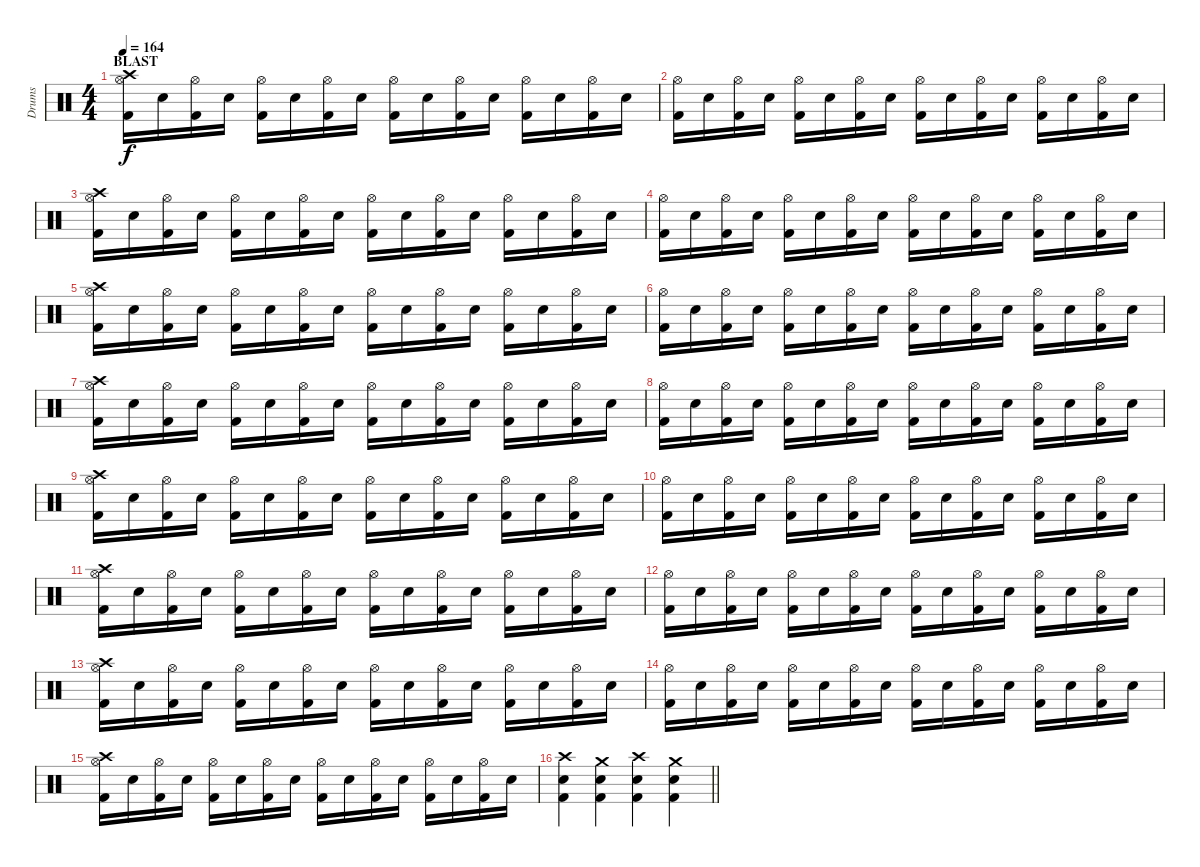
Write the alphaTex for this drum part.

\track ("Drums" "Drums") {instrument percussion}
\staff {score}
\articulation defaults
\ts (4 4)
\section ("" "BLAST")
\tempo 164
\clef neutral
\ks c
("Crash high (hit)" "Hi-Hat (open)" "Kick (hit) 2").16{dy f} "Snare (hit) 2".16 ("Hi-Hat (open)" "Kick (hit) 2").16 "Snare (hit) 2".16 ("Hi-Hat (open)" "Kick (hit) 2").16 "Snare (hit) 2".16 ("Hi-Hat (open)" "Kick (hit) 2").16 "Snare (hit) 2".16 ("Hi-Hat (open)" "Kick (hit) 2").16 "Snare (hit) 2".16 ("Hi-Hat (open)" "Kick (hit) 2").16 "Snare (hit) 2".16 ("Hi-Hat (open)" "Kick (hit) 2").16 "Snare (hit) 2".16 ("Hi-Hat (open)" "Kick (hit) 2").16 "Snare (hit) 2".16 |
("Hi-Hat (open)" "Kick (hit) 2").16 "Snare (hit) 2".16 ("Hi-Hat (open)" "Kick (hit) 2").16 "Snare (hit) 2".16 ("Hi-Hat (open)" "Kick (hit) 2").16 "Snare (hit) 2".16 ("Hi-Hat (open)" "Kick (hit) 2").16 "Snare (hit) 2".16 ("Hi-Hat (open)" "Kick (hit) 2").16 "Snare (hit) 2".16 ("Hi-Hat (open)" "Kick (hit) 2").16 "Snare (hit) 2".16 ("Hi-Hat (open)" "Kick (hit) 2").16 "Snare (hit) 2".16 ("Hi-Hat (open)" "Kick (hit) 2").16 "Snare (hit) 2".16 |
("Crash high (hit)" "Hi-Hat (open)" "Kick (hit) 2").16 "Snare (hit) 2".16 ("Hi-Hat (open)" "Kick (hit) 2").16 "Snare (hit) 2".16 ("Hi-Hat (open)" "Kick (hit) 2").16 "Snare (hit) 2".16 ("Hi-Hat (open)" "Kick (hit) 2").16 "Snare (hit) 2".16 ("Hi-Hat (open)" "Kick (hit) 2").16 "Snare (hit) 2".16 ("Hi-Hat (open)" "Kick (hit) 2").16 "Snare (hit) 2".16 ("Hi-Hat (open)" "Kick (hit) 2").16 "Snare (hit) 2".16 ("Hi-Hat (open)" "Kick (hit) 2").16 "Snare (hit) 2".16 |
("Hi-Hat (open)" "Kick (hit) 2").16 "Snare (hit) 2".16 ("Hi-Hat (open)" "Kick (hit) 2").16 "Snare (hit) 2".16 ("Hi-Hat (open)" "Kick (hit) 2").16 "Snare (hit) 2".16 ("Hi-Hat (open)" "Kick (hit) 2").16 "Snare (hit) 2".16 ("Hi-Hat (open)" "Kick (hit) 2").16 "Snare (hit) 2".16 ("Hi-Hat (open)" "Kick (hit) 2").16 "Snare (hit) 2".16 ("Hi-Hat (open)" "Kick (hit) 2").16 "Snare (hit) 2".16 ("Hi-Hat (open)" "Kick (hit) 2").16 "Snare (hit) 2".16 |
("Crash high (hit)" "Hi-Hat (open)" "Kick (hit) 2").16 "Snare (hit) 2".16 ("Hi-Hat (open)" "Kick (hit) 2").16 "Snare (hit) 2".16 ("Hi-Hat (open)" "Kick (hit) 2").16 "Snare (hit) 2".16 ("Hi-Hat (open)" "Kick (hit) 2").16 "Snare (hit) 2".16 ("Hi-Hat (open)" "Kick (hit) 2").16 "Snare (hit) 2".16 ("Hi-Hat (open)" "Kick (hit) 2").16 "Snare (hit) 2".16 ("Hi-Hat (open)" "Kick (hit) 2").16 "Snare (hit) 2".16 ("Hi-Hat (open)" "Kick (hit) 2").16 "Snare (hit) 2".16 |
("Hi-Hat (open)" "Kick (hit) 2").16 "Snare (hit) 2".16 ("Hi-Hat (open)" "Kick (hit) 2").16 "Snare (hit) 2".16 ("Hi-Hat (open)" "Kick (hit) 2").16 "Snare (hit) 2".16 ("Hi-Hat (open)" "Kick (hit) 2").16 "Snare (hit) 2".16 ("Hi-Hat (open)" "Kick (hit) 2").16 "Snare (hit) 2".16 ("Hi-Hat (open)" "Kick (hit) 2").16 "Snare (hit) 2".16 ("Hi-Hat (open)" "Kick (hit) 2").16 "Snare (hit) 2".16 ("Hi-Hat (open)" "Kick (hit) 2").16 "Snare (hit) 2".16 |
("Crash high (hit)" "Hi-Hat (open)" "Kick (hit) 2").16 "Snare (hit) 2".16 ("Hi-Hat (open)" "Kick (hit) 2").16 "Snare (hit) 2".16 ("Hi-Hat (open)" "Kick (hit) 2").16 "Snare (hit) 2".16 ("Hi-Hat (open)" "Kick (hit) 2").16 "Snare (hit) 2".16 ("Hi-Hat (open)" "Kick (hit) 2").16 "Snare (hit) 2".16 ("Hi-Hat (open)" "Kick (hit) 2").16 "Snare (hit) 2".16 ("Hi-Hat (open)" "Kick (hit) 2").16 "Snare (hit) 2".16 ("Hi-Hat (open)" "Kick (hit) 2").16 "Snare (hit) 2".16 |
("Hi-Hat (open)" "Kick (hit) 2").16 "Snare (hit) 2".16 ("Hi-Hat (open)" "Kick (hit) 2").16 "Snare (hit) 2".16 ("Hi-Hat (open)" "Kick (hit) 2").16 "Snare (hit) 2".16 ("Hi-Hat (open)" "Kick (hit) 2").16 "Snare (hit) 2".16 ("Hi-Hat (open)" "Kick (hit) 2").16 "Snare (hit) 2".16 ("Hi-Hat (open)" "Kick (hit) 2").16 "Snare (hit) 2".16 ("Hi-Hat (open)" "Kick (hit) 2").16 "Snare (hit) 2".16 ("Hi-Hat (open)" "Kick (hit) 2").16 "Snare (hit) 2".16 |
("Crash high (hit)" "Hi-Hat (open)" "Kick (hit) 2").16 "Snare (hit) 2".16 ("Hi-Hat (open)" "Kick (hit) 2").16 "Snare (hit) 2".16 ("Hi-Hat (open)" "Kick (hit) 2").16 "Snare (hit) 2".16 ("Hi-Hat (open)" "Kick (hit) 2").16 "Snare (hit) 2".16 ("Hi-Hat (open)" "Kick (hit) 2").16 "Snare (hit) 2".16 ("Hi-Hat (open)" "Kick (hit) 2").16 "Snare (hit) 2".16 ("Hi-Hat (open)" "Kick (hit) 2").16 "Snare (hit) 2".16 ("Hi-Hat (open)" "Kick (hit) 2").16 "Snare (hit) 2".16 |
("Hi-Hat (open)" "Kick (hit) 2").16 "Snare (hit) 2".16 ("Hi-Hat (open)" "Kick (hit) 2").16 "Snare (hit) 2".16 ("Hi-Hat (open)" "Kick (hit) 2").16 "Snare (hit) 2".16 ("Hi-Hat (open)" "Kick (hit) 2").16 "Snare (hit) 2".16 ("Hi-Hat (open)" "Kick (hit) 2").16 "Snare (hit) 2".16 ("Hi-Hat (open)" "Kick (hit) 2").16 "Snare (hit) 2".16 ("Hi-Hat (open)" "Kick (hit) 2").16 "Snare (hit) 2".16 ("Hi-Hat (open)" "Kick (hit) 2").16 "Snare (hit) 2".16 |
("Crash high (hit)" "Hi-Hat (open)" "Kick (hit) 2").16 "Snare (hit) 2".16 ("Hi-Hat (open)" "Kick (hit) 2").16 "Snare (hit) 2".16 ("Hi-Hat (open)" "Kick (hit) 2").16 "Snare (hit) 2".16 ("Hi-Hat (open)" "Kick (hit) 2").16 "Snare (hit) 2".16 ("Hi-Hat (open)" "Kick (hit) 2").16 "Snare (hit) 2".16 ("Hi-Hat (open)" "Kick (hit) 2").16 "Snare (hit) 2".16 ("Hi-Hat (open)" "Kick (hit) 2").16 "Snare (hit) 2".16 ("Hi-Hat (open)" "Kick (hit) 2").16 "Snare (hit) 2".16 |
("Hi-Hat (open)" "Kick (hit) 2").16 "Snare (hit) 2".16 ("Hi-Hat (open)" "Kick (hit) 2").16 "Snare (hit) 2".16 ("Hi-Hat (open)" "Kick (hit) 2").16 "Snare (hit) 2".16 ("Hi-Hat (open)" "Kick (hit) 2").16 "Snare (hit) 2".16 ("Hi-Hat (open)" "Kick (hit) 2").16 "Snare (hit) 2".16 ("Hi-Hat (open)" "Kick (hit) 2").16 "Snare (hit) 2".16 ("Hi-Hat (open)" "Kick (hit) 2").16 "Snare (hit) 2".16 ("Hi-Hat (open)" "Kick (hit) 2").16 "Snare (hit) 2".16 |
("Crash high (hit)" "Hi-Hat (open)" "Kick (hit) 2").16 "Snare (hit) 2".16 ("Hi-Hat (open)" "Kick (hit) 2").16 "Snare (hit) 2".16 ("Hi-Hat (open)" "Kick (hit) 2").16 "Snare (hit) 2".16 ("Hi-Hat (open)" "Kick (hit) 2").16 "Snare (hit) 2".16 ("Hi-Hat (open)" "Kick (hit) 2").16 "Snare (hit) 2".16 ("Hi-Hat (open)" "Kick (hit) 2").16 "Snare (hit) 2".16 ("Hi-Hat (open)" "Kick (hit) 2").16 "Snare (hit) 2".16 ("Hi-Hat (open)" "Kick (hit) 2").16 "Snare (hit) 2".16 |
("Hi-Hat (open)" "Kick (hit) 2").16 "Snare (hit) 2".16 ("Hi-Hat (open)" "Kick (hit) 2").16 "Snare (hit) 2".16 ("Hi-Hat (open)" "Kick (hit) 2").16 "Snare (hit) 2".16 ("Hi-Hat (open)" "Kick (hit) 2").16 "Snare (hit) 2".16 ("Hi-Hat (open)" "Kick (hit) 2").16 "Snare (hit) 2".16 ("Hi-Hat (open)" "Kick (hit) 2").16 "Snare (hit) 2".16 ("Hi-Hat (open)" "Kick (hit) 2").16 "Snare (hit) 2".16 ("Hi-Hat (open)" "Kick (hit) 2").16 "Snare (hit) 2".16 |
("Crash high (hit)" "Hi-Hat (open)" "Kick (hit) 2").16 "Snare (hit) 2".16 ("Hi-Hat (open)" "Kick (hit) 2").16 "Snare (hit) 2".16 ("Hi-Hat (open)" "Kick (hit) 2").16 "Snare (hit) 2".16 ("Hi-Hat (open)" "Kick (hit) 2").16 "Snare (hit) 2".16 ("Hi-Hat (open)" "Kick (hit) 2").16 "Snare (hit) 2".16 ("Hi-Hat (open)" "Kick (hit) 2").16 "Snare (hit) 2".16 ("Hi-Hat (open)" "Kick (hit) 2").16 "Snare (hit) 2".16 ("Hi-Hat (open)" "Kick (hit) 2").16 "Snare (hit) 2".16 |
\barLineRight lightlight
("Crash high (hit)" "Snare (hit) 2" "Kick (hit) 2").4 ("Crash medium (hit)" "Snare (hit) 2" "Kick (hit) 2").4 ("Crash high (hit)" "Snare (hit) 2" "Kick (hit) 2").4 ("Crash medium (hit)" "Snare (hit) 2" "Kick (hit) 2").4
